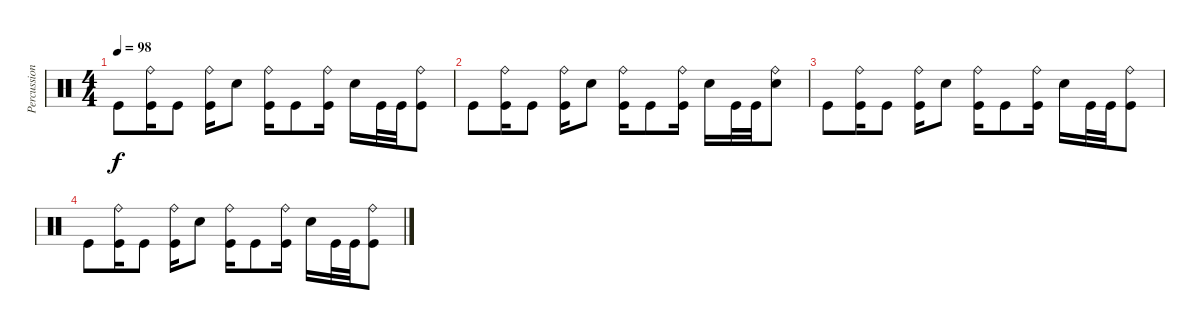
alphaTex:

\track ("Percussions" "Percussion") {instrument percussion}
\staff {score}
\articulation defaults
\ts (4 4)
\tempo 98
\clef neutral
\ks c "Kick (hit)".8{dy f}
("Ride (bell)" "Kick (hit)").16 "Kick (hit)".8 ("Ride (bell)" "Kick (hit)").16 "Snare (hit) 2".8 ("Ride (bell)" "Kick (hit)").16 "Kick (hit)".8 ("Ride (bell)" "Kick (hit)").16 "Snare (hit) 2".16 "Kick (hit)".32 "Kick (hit)".32 ("Ride (bell)" "Kick (hit)").8 |
"Kick (hit)".8 ("Ride (bell)" "Kick (hit)").16 "Kick (hit)".8 ("Ride (bell)" "Kick (hit)").16 "Snare (hit) 2".8 ("Ride (bell)" "Kick (hit)").16 "Kick (hit)".8 ("Ride (bell)" "Kick (hit)").16 "Snare (hit) 2".16 "Kick (hit)".32 "Kick (hit)".32 ("Ride (bell)" "Snare (hit) 2").8 |
"Kick (hit)".8 ("Ride (bell)" "Kick (hit)").16 "Kick (hit)".8 ("Ride (bell)" "Kick (hit)").16 "Snare (hit) 2".8 ("Ride (bell)" "Kick (hit)").16 "Kick (hit)".8 ("Ride (bell)" "Kick (hit)").16 "Snare (hit) 2".16 "Kick (hit)".32 "Kick (hit)".32 ("Ride (bell)" "Kick (hit)").8 |
"Kick (hit)".8 ("Ride (bell)" "Kick (hit)").16 "Kick (hit)".8 ("Ride (bell)" "Kick (hit)").16 "Snare (hit) 2".8 ("Ride (bell)" "Kick (hit)").16 "Kick (hit)".8 ("Ride (bell)" "Kick (hit)").16 "Snare (hit) 2".16 "Kick (hit)".32 "Kick (hit)".32 ("Ride (bell)" "Kick (hit)").8
